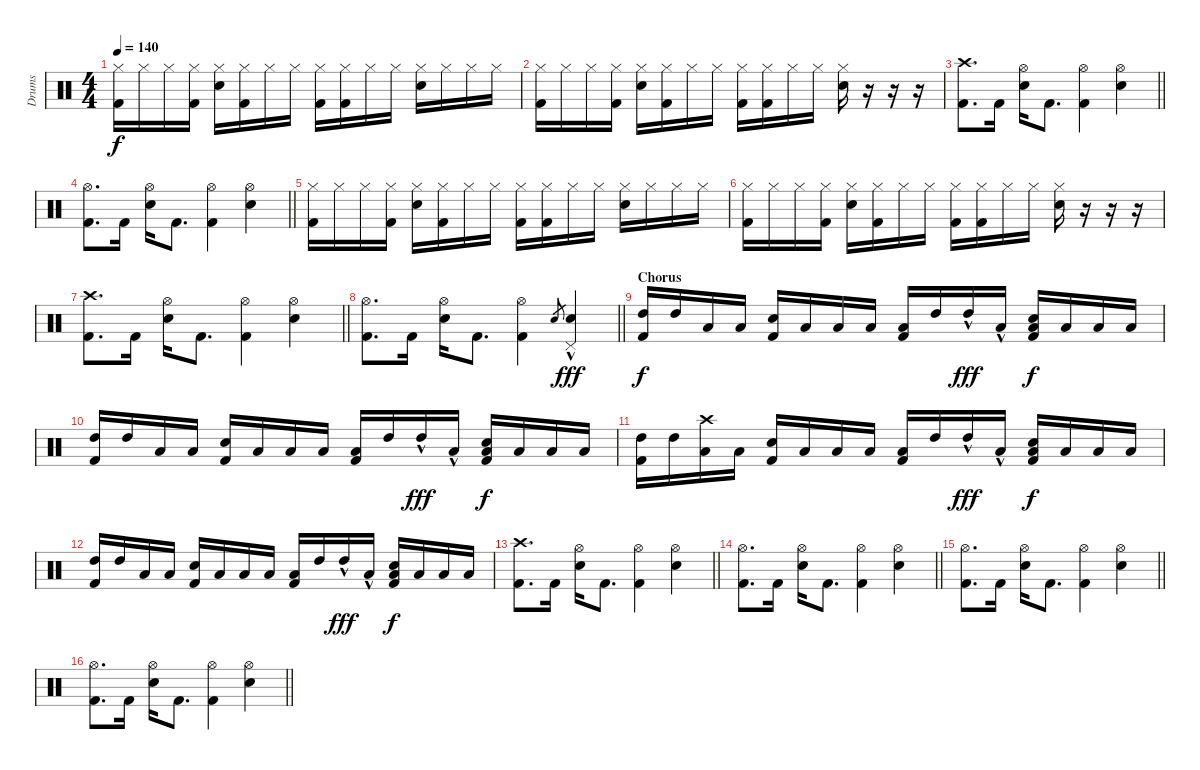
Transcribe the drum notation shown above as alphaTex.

\track ("Drums" "Drums") {instrument percussion}
\staff {score}
\articulation defaults
\ts (4 4)
\tempo 140
\clef neutral
\ks c
("Hi-Hat (closed)" "Kick (hit) 2").16{dy f} "Hi-Hat (closed)".16 "Hi-Hat (closed)".16 ("Hi-Hat (closed)" "Kick (hit) 2").16 ("Hi-Hat (closed)" "Electric Snare (hit)").16 ("Hi-Hat (closed)" "Kick (hit) 2").16 "Hi-Hat (closed)".16 "Hi-Hat (closed)".16 ("Hi-Hat (closed)" "Kick (hit) 2").16 ("Hi-Hat (closed)" "Kick (hit) 2").16 "Hi-Hat (closed)".16 "Hi-Hat (closed)".16 ("Hi-Hat (closed)" "Electric Snare (hit)").16 "Hi-Hat (closed)".16 "Hi-Hat (closed)".16 "Hi-Hat (closed)".16 |
("Hi-Hat (closed)" "Kick (hit) 2").16 "Hi-Hat (closed)".16 "Hi-Hat (closed)".16 ("Hi-Hat (closed)" "Kick (hit) 2").16 ("Hi-Hat (closed)" "Electric Snare (hit)").16 ("Hi-Hat (closed)" "Kick (hit) 2").16 "Hi-Hat (closed)".16 "Hi-Hat (closed)".16 ("Hi-Hat (closed)" "Kick (hit) 2").16 ("Hi-Hat (closed)" "Kick (hit) 2").16 "Hi-Hat (closed)".16 "Hi-Hat (closed)".16 ("Hi-Hat (closed)" "Electric Snare (hit)").16 r.16 r.16 r.16 |
\barLineRight lightlight
("Crash high (hit)" "Kick (hit) 2").8{d} "Kick (hit) 2".16 ("Electric Snare (hit)" "Hi-Hat (open)").16 "Kick (hit) 2".8{d} ("Hi-Hat (open)" "Kick (hit) 2").4 ("Hi-Hat (open)" "Snare (hit) 2").4 |
\barLineRight lightlight
("Hi-Hat (open)" "Kick (hit) 2").8{d} "Kick (hit) 2".16 ("Electric Snare (hit)" "Hi-Hat (open)").16 "Kick (hit) 2".8{d} ("Hi-Hat (open)" "Kick (hit) 2").4 ("Hi-Hat (open)" "Snare (hit) 2").4 |
("Hi-Hat (closed)" "Kick (hit) 2").16 "Hi-Hat (closed)".16 "Hi-Hat (closed)".16 ("Hi-Hat (closed)" "Kick (hit) 2").16 ("Hi-Hat (closed)" "Electric Snare (hit)").16 ("Hi-Hat (closed)" "Kick (hit) 2").16 "Hi-Hat (closed)".16 "Hi-Hat (closed)".16 ("Hi-Hat (closed)" "Kick (hit) 2").16 ("Hi-Hat (closed)" "Kick (hit) 2").16 "Hi-Hat (closed)".16 "Hi-Hat (closed)".16 ("Hi-Hat (closed)" "Electric Snare (hit)").16 "Hi-Hat (closed)".16 "Hi-Hat (closed)".16 "Hi-Hat (closed)".16 |
("Hi-Hat (closed)" "Kick (hit) 2").16 "Hi-Hat (closed)".16 "Hi-Hat (closed)".16 ("Hi-Hat (closed)" "Kick (hit) 2").16 ("Hi-Hat (closed)" "Electric Snare (hit)").16 ("Hi-Hat (closed)" "Kick (hit) 2").16 "Hi-Hat (closed)".16 "Hi-Hat (closed)".16 ("Hi-Hat (closed)" "Kick (hit) 2").16 ("Hi-Hat (closed)" "Kick (hit) 2").16 "Hi-Hat (closed)".16 "Hi-Hat (closed)".16 ("Hi-Hat (closed)" "Electric Snare (hit)").16 r.16 r.16 r.16 |
\barLineRight lightlight
("Crash high (hit)" "Kick (hit) 2").8{d} "Kick (hit) 2".16 ("Electric Snare (hit)" "Hi-Hat (open)").16 "Kick (hit) 2".8{d} ("Hi-Hat (open)" "Kick (hit) 2").4 ("Hi-Hat (open)" "Snare (hit) 2").4 |
\barLineRight lightlight
("Hi-Hat (open)" "Kick (hit) 2").8{d} "Kick (hit) 2".16 ("Electric Snare (hit)" "Hi-Hat (open)").16 "Kick (hit) 2".8{d} ("Hi-Hat (open)" "Kick (hit) 2").4 "Snare (hit) 2".8{gr} ("Pedal Hi-Hat (hit)" "Snare (hit) 2"{hac}).4{dy fff} |
\section ("" "Chorus")
("High Tom (hit)" "Kick (hit) 2").16{dy f} "High Tom (hit)".16 "Low Tom (hit)".16 "Low Tom (hit)".16 ("Electric Snare (hit)" "Kick (hit) 2").16 "Low Tom (hit)".16 "Low Tom (hit)".16 "Low Floor Tom (hit)".16 ("Low Floor Tom (hit)" "Kick (hit) 2").16 "High Tom (hit)".16 "High Tom (hit)"{hac}.16{dy fff} "Low Tom (hit)"{hac}.16 ("Electric Snare (hit)" "Low Tom (hit)" "Kick (hit) 2").16{dy f} "Low Tom (hit)".16 "Low Floor Tom (hit)".16 "Low Floor Tom (hit)".16 |
("High Tom (hit)" "Kick (hit) 2").16 "High Tom (hit)".16 "Low Tom (hit)".16 "Low Tom (hit)".16 ("Electric Snare (hit)" "Kick (hit) 2").16 "Low Tom (hit)".16 "Low Tom (hit)".16 "Low Floor Tom (hit)".16 ("Low Floor Tom (hit)" "Kick (hit) 2").16 "High Tom (hit)".16 "High Tom (hit)"{hac}.16{dy fff} "Low Tom (hit)"{hac}.16 ("Electric Snare (hit)" "Low Tom (hit)" "Kick (hit) 2").16{dy f} "Low Tom (hit)".16 "Low Floor Tom (hit)".16 "Low Floor Tom (hit)".16 |
("High Tom (hit)" "Kick (hit) 2").16 "High Tom (hit)".16 ("Crash high (hit)" "Low Tom (hit)").16 "Low Tom (hit)".16 ("Electric Snare (hit)" "Kick (hit) 2").16 "Low Tom (hit)".16 "Low Tom (hit)".16 "Low Floor Tom (hit)".16 ("Low Floor Tom (hit)" "Kick (hit) 2").16 "High Tom (hit)".16 "High Tom (hit)"{hac}.16{dy fff} "Low Tom (hit)"{hac}.16 ("Electric Snare (hit)" "Low Tom (hit)" "Kick (hit) 2").16{dy f} "Low Tom (hit)".16 "Low Floor Tom (hit)".16 "Low Floor Tom (hit)".16 |
("High Tom (hit)" "Kick (hit) 2").16 "High Tom (hit)".16 "Low Tom (hit)".16 "Low Tom (hit)".16 ("Electric Snare (hit)" "Kick (hit) 2").16 "Low Tom (hit)".16 "Low Tom (hit)".16 "Low Floor Tom (hit)".16 ("Low Floor Tom (hit)" "Kick (hit) 2").16 "High Tom (hit)".16 "High Tom (hit)"{hac}.16{dy fff} "Low Tom (hit)"{hac}.16 ("Electric Snare (hit)" "Low Tom (hit)" "Kick (hit) 2").16{dy f} "Low Tom (hit)".16 "Low Floor Tom (hit)".16 "Low Floor Tom (hit)".16 |
\barLineRight lightlight
("Crash high (hit)" "Kick (hit) 2").8{d} "Kick (hit) 2".16 ("Electric Snare (hit)" "Hi-Hat (open)").16 "Kick (hit) 2".8{d} ("Hi-Hat (open)" "Kick (hit) 2").4 ("Hi-Hat (open)" "Snare (hit) 2").4 |
\barLineRight lightlight
("Hi-Hat (open)" "Kick (hit) 2").8{d} "Kick (hit) 2".16 ("Electric Snare (hit)" "Hi-Hat (open)").16 "Kick (hit) 2".8{d} ("Hi-Hat (open)" "Kick (hit) 2").4 ("Hi-Hat (open)" "Snare (hit) 2").4 |
\barLineRight lightlight
("Hi-Hat (open)" "Kick (hit) 2").8{d} "Kick (hit) 2".16 ("Electric Snare (hit)" "Hi-Hat (open)").16 "Kick (hit) 2".8{d} ("Hi-Hat (open)" "Kick (hit) 2").4 ("Hi-Hat (open)" "Snare (hit) 2").4 |
\barLineRight lightlight
("Hi-Hat (open)" "Kick (hit) 2").8{d} "Kick (hit) 2".16 ("Electric Snare (hit)" "Hi-Hat (open)").16 "Kick (hit) 2".8{d} ("Hi-Hat (open)" "Kick (hit) 2").4 ("Hi-Hat (open)" "Snare (hit) 2").4
